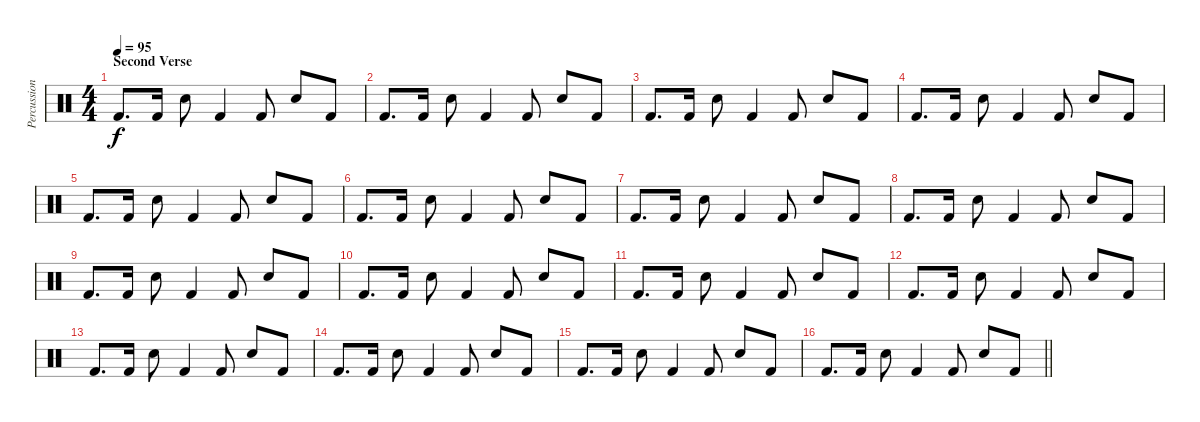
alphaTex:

\track ("Percussioni" "Percussion") {instrument percussion}
\staff {score}
\articulation defaults
\ts (4 4)
\section ("" "Second Verse")
\tempo 95
\clef neutral
\ks c "Kick (hit) 2".8{d dy f} "Kick (hit) 2".16 "Snare (hit) 2".8 "Kick (hit) 2".4 "Kick (hit) 2".8 "Snare (hit) 2".8 "Kick (hit) 2".8
|
"Kick (hit) 2".8{d} "Kick (hit) 2".16 "Snare (hit) 2".8 "Kick (hit) 2".4 "Kick (hit) 2".8 "Snare (hit) 2".8 "Kick (hit) 2".8 |
"Kick (hit) 2".8{d} "Kick (hit) 2".16 "Snare (hit) 2".8 "Kick (hit) 2".4 "Kick (hit) 2".8 "Snare (hit) 2".8 "Kick (hit) 2".8 |
"Kick (hit) 2".8{d} "Kick (hit) 2".16 "Snare (hit) 2".8 "Kick (hit) 2".4 "Kick (hit) 2".8 "Snare (hit) 2".8 "Kick (hit) 2".8 |
"Kick (hit) 2".8{d} "Kick (hit) 2".16 "Snare (hit) 2".8 "Kick (hit) 2".4 "Kick (hit) 2".8 "Snare (hit) 2".8 "Kick (hit) 2".8 |
"Kick (hit) 2".8{d} "Kick (hit) 2".16 "Snare (hit) 2".8 "Kick (hit) 2".4 "Kick (hit) 2".8 "Snare (hit) 2".8 "Kick (hit) 2".8 |
"Kick (hit) 2".8{d} "Kick (hit) 2".16 "Snare (hit) 2".8 "Kick (hit) 2".4 "Kick (hit) 2".8 "Snare (hit) 2".8 "Kick (hit) 2".8 |
"Kick (hit) 2".8{d} "Kick (hit) 2".16 "Snare (hit) 2".8 "Kick (hit) 2".4 "Kick (hit) 2".8 "Snare (hit) 2".8 "Kick (hit) 2".8 |
"Kick (hit) 2".8{d} "Kick (hit) 2".16 "Snare (hit) 2".8 "Kick (hit) 2".4 "Kick (hit) 2".8 "Snare (hit) 2".8 "Kick (hit) 2".8 |
"Kick (hit) 2".8{d} "Kick (hit) 2".16 "Snare (hit) 2".8 "Kick (hit) 2".4 "Kick (hit) 2".8 "Snare (hit) 2".8 "Kick (hit) 2".8 |
"Kick (hit) 2".8{d} "Kick (hit) 2".16 "Snare (hit) 2".8 "Kick (hit) 2".4 "Kick (hit) 2".8 "Snare (hit) 2".8 "Kick (hit) 2".8 |
"Kick (hit) 2".8{d} "Kick (hit) 2".16 "Snare (hit) 2".8 "Kick (hit) 2".4 "Kick (hit) 2".8 "Snare (hit) 2".8 "Kick (hit) 2".8 |
"Kick (hit) 2".8{d} "Kick (hit) 2".16 "Snare (hit) 2".8 "Kick (hit) 2".4 "Kick (hit) 2".8 "Snare (hit) 2".8 "Kick (hit) 2".8 |
"Kick (hit) 2".8{d} "Kick (hit) 2".16 "Snare (hit) 2".8 "Kick (hit) 2".4 "Kick (hit) 2".8 "Snare (hit) 2".8 "Kick (hit) 2".8 |
"Kick (hit) 2".8{d} "Kick (hit) 2".16 "Snare (hit) 2".8 "Kick (hit) 2".4 "Kick (hit) 2".8 "Snare (hit) 2".8 "Kick (hit) 2".8 |
\barLineRight lightlight "Kick (hit) 2".8{d} "Kick (hit) 2".16 "Snare (hit) 2".8 "Kick (hit) 2".4 "Kick (hit) 2".8 "Snare (hit) 2".8 "Kick (hit) 2".8
